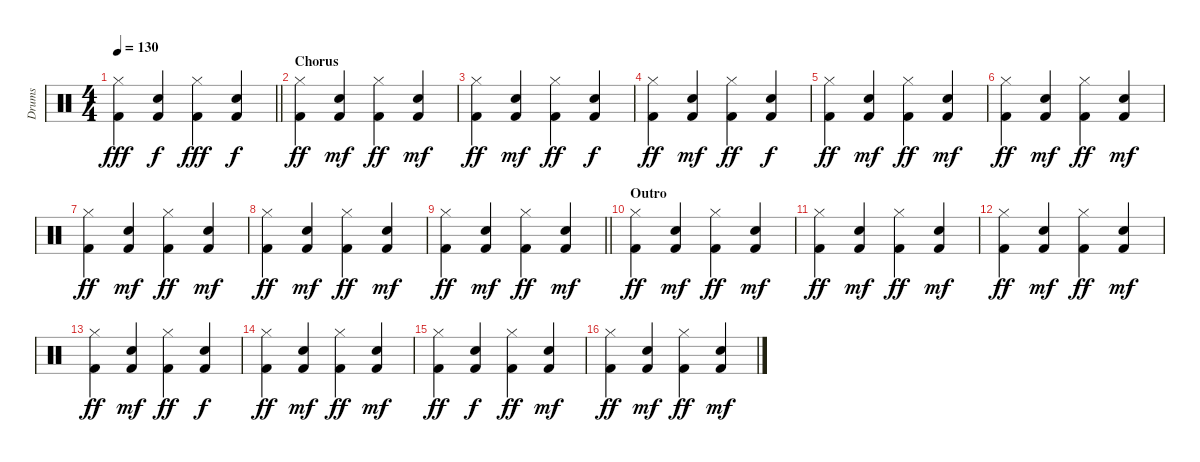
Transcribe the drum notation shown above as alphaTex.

\track ("Drums" "Drums") {instrument percussion}
\staff {score}
\articulation defaults
\ts (4 4)
\tempo 130
\clef neutral
\barLineRight lightlight
\ks c
("Kick (hit) 2" "Hi-Hat (closed)").4{dy fff} ("Kick (hit) 2" "Snare (hit) 2").4{dy f} ("Kick (hit) 2" "Hi-Hat (closed)").4{dy fff} ("Kick (hit) 2" "Snare (hit) 2").4{dy f} |
\section ("" "Chorus")
("Kick (hit) 2" "Hi-Hat (closed)").4{dy ff} ("Kick (hit) 2" "Snare (hit) 2").4{dy mf} ("Kick (hit) 2" "Hi-Hat (closed)").4{dy ff} ("Kick (hit) 2" "Snare (hit) 2").4{dy mf} |
("Kick (hit) 2" "Hi-Hat (closed)").4{dy ff} ("Kick (hit) 2" "Snare (hit) 2").4{dy mf} ("Kick (hit) 2" "Hi-Hat (closed)").4{dy ff} ("Kick (hit) 2" "Snare (hit) 2").4{dy f} |
("Kick (hit) 2" "Hi-Hat (closed)").4{dy ff} ("Kick (hit) 2" "Snare (hit) 2").4{dy mf} ("Kick (hit) 2" "Hi-Hat (closed)").4{dy ff} ("Kick (hit) 2" "Snare (hit) 2").4{dy f} |
("Kick (hit) 2" "Hi-Hat (closed)").4{dy ff} ("Kick (hit) 2" "Snare (hit) 2").4{dy mf} ("Kick (hit) 2" "Hi-Hat (closed)").4{dy ff} ("Kick (hit) 2" "Snare (hit) 2").4{dy mf} |
("Kick (hit) 2" "Hi-Hat (closed)").4{dy ff} ("Kick (hit) 2" "Snare (hit) 2").4{dy mf} ("Kick (hit) 2" "Hi-Hat (closed)").4{dy ff} ("Kick (hit) 2" "Snare (hit) 2").4{dy mf} |
("Kick (hit) 2" "Hi-Hat (closed)").4{dy ff} ("Kick (hit) 2" "Snare (hit) 2").4{dy mf} ("Kick (hit) 2" "Hi-Hat (closed)").4{dy ff} ("Kick (hit) 2" "Snare (hit) 2").4{dy mf} |
("Kick (hit) 2" "Hi-Hat (closed)").4{dy ff} ("Kick (hit) 2" "Snare (hit) 2").4{dy mf} ("Kick (hit) 2" "Hi-Hat (closed)").4{dy ff} ("Kick (hit) 2" "Snare (hit) 2").4{dy mf} |
\barLineRight lightlight
("Kick (hit) 2" "Hi-Hat (closed)").4{dy ff} ("Kick (hit) 2" "Snare (hit) 2").4{dy mf} ("Kick (hit) 2" "Hi-Hat (closed)").4{dy ff} ("Kick (hit) 2" "Snare (hit) 2").4{dy mf} |
\section ("" "Outro")
("Kick (hit) 2" "Hi-Hat (closed)").4{dy ff} ("Kick (hit) 2" "Snare (hit) 2").4{dy mf} ("Kick (hit) 2" "Hi-Hat (closed)").4{dy ff} ("Kick (hit) 2" "Snare (hit) 2").4{dy mf} |
("Kick (hit) 2" "Hi-Hat (closed)").4{dy ff} ("Kick (hit) 2" "Snare (hit) 2").4{dy mf} ("Kick (hit) 2" "Hi-Hat (closed)").4{dy ff} ("Kick (hit) 2" "Snare (hit) 2").4{dy mf} |
("Kick (hit) 2" "Hi-Hat (closed)").4{dy ff} ("Kick (hit) 2" "Snare (hit) 2").4{dy mf} ("Kick (hit) 2" "Hi-Hat (closed)").4{dy ff} ("Kick (hit) 2" "Snare (hit) 2").4{dy mf} |
("Kick (hit) 2" "Hi-Hat (closed)").4{dy ff} ("Kick (hit) 2" "Snare (hit) 2").4{dy mf} ("Kick (hit) 2" "Hi-Hat (closed)").4{dy ff} ("Kick (hit) 2" "Snare (hit) 2").4{dy f} |
("Kick (hit) 2" "Hi-Hat (closed)").4{dy ff} ("Kick (hit) 2" "Snare (hit) 2").4{dy mf} ("Kick (hit) 2" "Hi-Hat (closed)").4{dy ff} ("Kick (hit) 2" "Snare (hit) 2").4{dy mf} |
("Kick (hit) 2" "Hi-Hat (closed)").4{dy ff} ("Kick (hit) 2" "Snare (hit) 2").4{dy f} ("Kick (hit) 2" "Hi-Hat (closed)").4{dy ff} ("Kick (hit) 2" "Snare (hit) 2").4{dy mf} |
("Kick (hit) 2" "Hi-Hat (closed)").4{dy ff} ("Kick (hit) 2" "Snare (hit) 2").4{dy mf} ("Kick (hit) 2" "Hi-Hat (closed)").4{dy ff} ("Kick (hit) 2" "Snare (hit) 2").4{dy mf}
